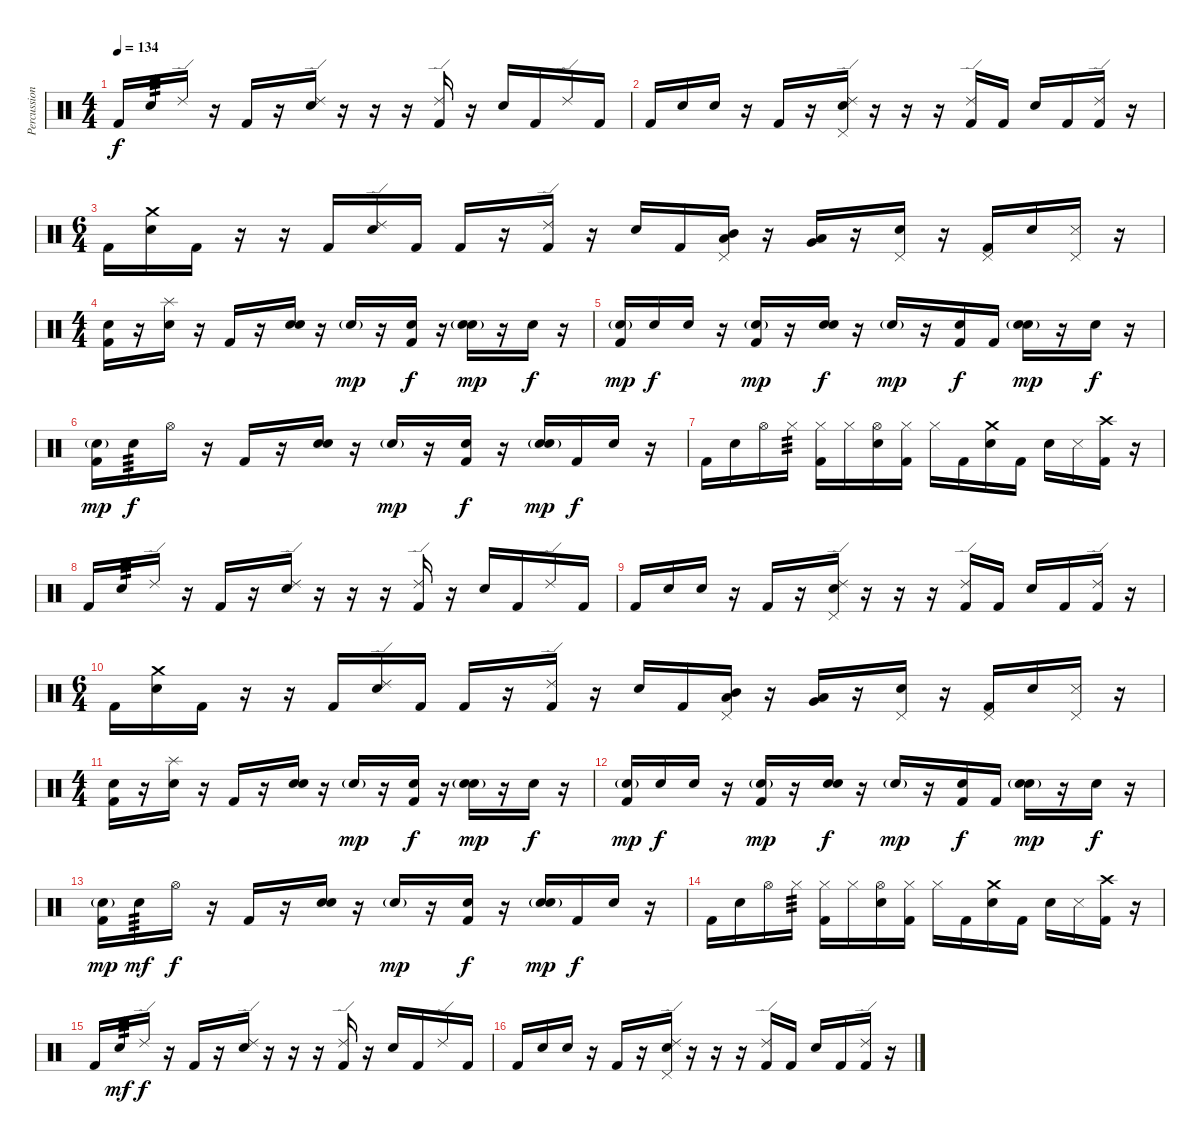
\track ("Percussion" "Percussion") {instrument percussion}
\staff {score}
\articulation defaults
\ts (4 4)
\tempo 134
\clef neutral
\ks c "Kick (hit) 2".16{dy f} "Snare (hit) 2".16{tp 3} "Ride (edge) 2".16
r.16 "Kick (hit) 2".16 r.16 ("Ride (edge) 2" "Snare (hit) 2").16 r.16 r.16 r.16 ("Ride (edge) 2" "Kick (hit) 2").16 r.16 "Snare (hit) 2".16 "Kick (hit) 2".16 "Ride (edge) 2".16 "Kick (hit) 2".16 |
"Kick (hit) 2".16 "Snare (hit) 2".16 "Snare (hit)".16 r.16 "Kick (hit) 2".16 r.16 ("Ride (edge) 2" "Pedal Hi-Hat (hit)" "Snare (hit) 2").16 r.16 r.16 r.16 ("Ride (edge) 2" "Kick (hit) 2").16 "Kick (hit) 2".16 "Snare (hit) 2".16 "Kick (hit) 2".16 ("Ride (edge) 2" "Kick (hit) 2").16 r.16 |
\ts (6 4)
"Kick (hit) 2".16 ("Crash medium (hit)" "Snare (hit) 2").16 "Kick (hit) 2".16 r.16 r.16 "Kick (hit) 2".16 ("Ride (edge) 2" "Snare (hit) 2").16 "Kick (hit) 2".16 "Kick (hit) 2".16 r.16 ("Ride (edge) 2" "Kick (hit) 2").16 r.16 "Snare (hit) 2".16 "Kick (hit) 2".16 ("Pedal Hi-Hat (hit)" "Mid Tom (hit)" "Low Tom (hit)").16 r.16 ("Low Tom (hit)" "Very Low Tom (hit)").16 r.16 ("Pedal Hi-Hat (hit)" "Snare (hit) 2").16 r.16 ("Pedal Hi-Hat (hit)" "Kick (hit) 2").16 "Snare (hit) 2".16 ("Pedal Hi-Hat (hit)" "Metronome (hit)").16 r.16 |
\ts (4 4)
("Snare (hit)" "Kick (hit) 2").16 r.16 ("Splash (hit)" "Snare (hit) 2").16 r.16 "Kick (hit) 2".16 r.16 ("Snare (hit)" "Snare (hit) 2").16 r.16 "Snare (hit)"{g}.16{dy mp} r.16 ("Snare (hit)" "Kick (hit) 2").16{dy f} r.16 ("Snare (hit)"{g} "Snare (hit) 2").16{dy mp} r.16 "Snare (hit)".16{dy f} r.16 |
("Snare (hit)"{g} "Kick (hit) 2").16{dy mp} "Snare (hit) 2".16{dy f} "Snare (hit)".16 r.16 ("Snare (hit)"{g} "Kick (hit) 2").16{dy mp} r.16 ("Snare (hit)" "Snare (hit) 2").16{dy f} r.16 "Snare (hit)"{g}.16{dy mp} r.16 ("Snare (hit)" "Kick (hit) 2").16{dy f} "Kick (hit) 2".16 ("Snare (hit)"{g} "Snare (hit) 2").16{dy mp} r.16 "Snare (hit)".16{dy f} r.16 |
("Snare (hit)"{g} "Kick (hit) 2").16{dy mp} "Snare (hit) 2".16{tp 3 dy f} "Hi-Hat (open)".16 r.16 "Kick (hit) 2".16 r.16 ("Snare (hit)" "Snare (hit) 2").16 r.16 "Snare (hit)"{g}.16{dy mp} r.16 ("Snare (hit)" "Kick (hit) 2").16{dy f} r.16 ("Snare (hit)"{g} "Snare (hit) 2").16{dy mp} "Kick (hit) 2".16{dy f} "Snare (hit)".16 r.16 |
"Kick (hit) 2".16 "Snare (hit) 2".16 "Hi-Hat (open)".16 "Hi-Hat (closed)".16{tp 3} ("Hi-Hat (closed)" "Kick (hit) 2").16 "Hi-Hat (closed)".16 ("Hi-Hat (open)" "Snare (hit) 2").16 ("Hi-Hat (closed)" "Kick (hit) 2").16 "Hi-Hat (closed)".16 "Kick (hit) 2".16 ("Crash medium (hit)" "Snare (hit) 2").16 "Kick (hit) 2".16 "Snare (hit) 2".16 "Metronome (hit)".16 ("Crash high (hit)" "Kick (hit) 2").16 r.16 |
"Kick (hit) 2".16 "Snare (hit) 2".16{tp 3} "Ride (edge) 2".16 r.16 "Kick (hit) 2".16 r.16 ("Ride (edge) 2" "Snare (hit) 2").16 r.16 r.16 r.16 ("Ride (edge) 2" "Kick (hit) 2").16 r.16 "Snare (hit) 2".16 "Kick (hit) 2".16 "Ride (edge) 2".16 "Kick (hit) 2".16 |
"Kick (hit) 2".16 "Snare (hit) 2".16 "Snare (hit)".16 r.16 "Kick (hit) 2".16 r.16 ("Ride (edge) 2" "Pedal Hi-Hat (hit)" "Snare (hit) 2").16 r.16 r.16 r.16 ("Ride (edge) 2" "Kick (hit) 2").16 "Kick (hit) 2".16 "Snare (hit) 2".16 "Kick (hit) 2".16 ("Ride (edge) 2" "Kick (hit) 2").16 r.16 |
\ts (6 4)
"Kick (hit) 2".16 ("Crash medium (hit)" "Snare (hit) 2").16 "Kick (hit) 2".16 r.16 r.16 "Kick (hit) 2".16 ("Ride (edge) 2" "Snare (hit) 2").16 "Kick (hit) 2".16 "Kick (hit) 2".16 r.16 ("Ride (edge) 2" "Kick (hit) 2").16 r.16 "Snare (hit) 2".16 "Kick (hit) 2".16 ("Pedal Hi-Hat (hit)" "Mid Tom (hit)" "Low Tom (hit)").16 r.16 ("Low Tom (hit)" "Very Low Tom (hit)").16 r.16 ("Pedal Hi-Hat (hit)" "Snare (hit) 2").16 r.16 ("Pedal Hi-Hat (hit)" "Kick (hit) 2").16 "Snare (hit) 2".16 ("Pedal Hi-Hat (hit)" "Metronome (hit)").16 r.16 |
\ts (4 4)
("Snare (hit)" "Kick (hit) 2").16 r.16 ("Splash (hit)" "Snare (hit) 2").16 r.16 "Kick (hit) 2".16 r.16 ("Snare (hit)" "Snare (hit) 2").16 r.16 "Snare (hit)"{g}.16{dy mp} r.16 ("Snare (hit)" "Kick (hit) 2").16{dy f} r.16 ("Snare (hit)"{g} "Snare (hit) 2").16{dy mp} r.16 "Snare (hit)".16{dy f} r.16 |
("Snare (hit)"{g} "Kick (hit) 2").16{dy mp} "Snare (hit) 2".16{dy f} "Snare (hit)".16 r.16 ("Snare (hit)"{g} "Kick (hit) 2").16{dy mp} r.16 ("Snare (hit)" "Snare (hit) 2").16{dy f} r.16 "Snare (hit)"{g}.16{dy mp} r.16 ("Snare (hit)" "Kick (hit) 2").16{dy f} "Kick (hit) 2".16 ("Snare (hit)"{g} "Snare (hit) 2").16{dy mp} r.16 "Snare (hit)".16{dy f} r.16 |
("Snare (hit)"{g} "Kick (hit) 2").16{dy mp} "Snare (hit) 2".16{tp 3 dy mf} "Hi-Hat (open)".16{dy f} r.16 "Kick (hit) 2".16 r.16 ("Snare (hit)" "Snare (hit) 2").16 r.16 "Snare (hit)"{g}.16{dy mp} r.16 ("Snare (hit)" "Kick (hit) 2").16{dy f} r.16 ("Snare (hit)"{g} "Snare (hit) 2").16{dy mp} "Kick (hit) 2".16{dy f} "Snare (hit)".16 r.16 |
"Kick (hit) 2".16 "Snare (hit) 2".16 "Hi-Hat (open)".16 "Hi-Hat (closed)".16{tp 3} ("Hi-Hat (closed)" "Kick (hit) 2").16 "Hi-Hat (closed)".16 ("Hi-Hat (open)" "Snare (hit) 2").16 ("Hi-Hat (closed)" "Kick (hit) 2").16 "Hi-Hat (closed)".16 "Kick (hit) 2".16 ("Crash medium (hit)" "Snare (hit) 2").16 "Kick (hit) 2".16 "Snare (hit) 2".16 "Metronome (hit)".16 ("Crash high (hit)" "Kick (hit) 2").16 r.16 |
"Kick (hit) 2".16 "Snare (hit) 2".16{tp 3 dy mf} "Ride (edge) 2".16{dy f} r.16 "Kick (hit) 2".16 r.16 ("Ride (edge) 2" "Snare (hit) 2").16 r.16 r.16 r.16 ("Ride (edge) 2" "Kick (hit) 2").16 r.16 "Snare (hit) 2".16 "Kick (hit) 2".16 "Ride (edge) 2".16 "Kick (hit) 2".16 |
"Kick (hit) 2".16 "Snare (hit) 2".16 "Snare (hit)".16 r.16 "Kick (hit) 2".16 r.16 ("Ride (edge) 2" "Pedal Hi-Hat (hit)" "Snare (hit) 2").16 r.16 r.16 r.16 ("Ride (edge) 2" "Kick (hit) 2").16 "Kick (hit) 2".16 "Snare (hit) 2".16 "Kick (hit) 2".16 ("Ride (edge) 2" "Kick (hit) 2").16 r.16
